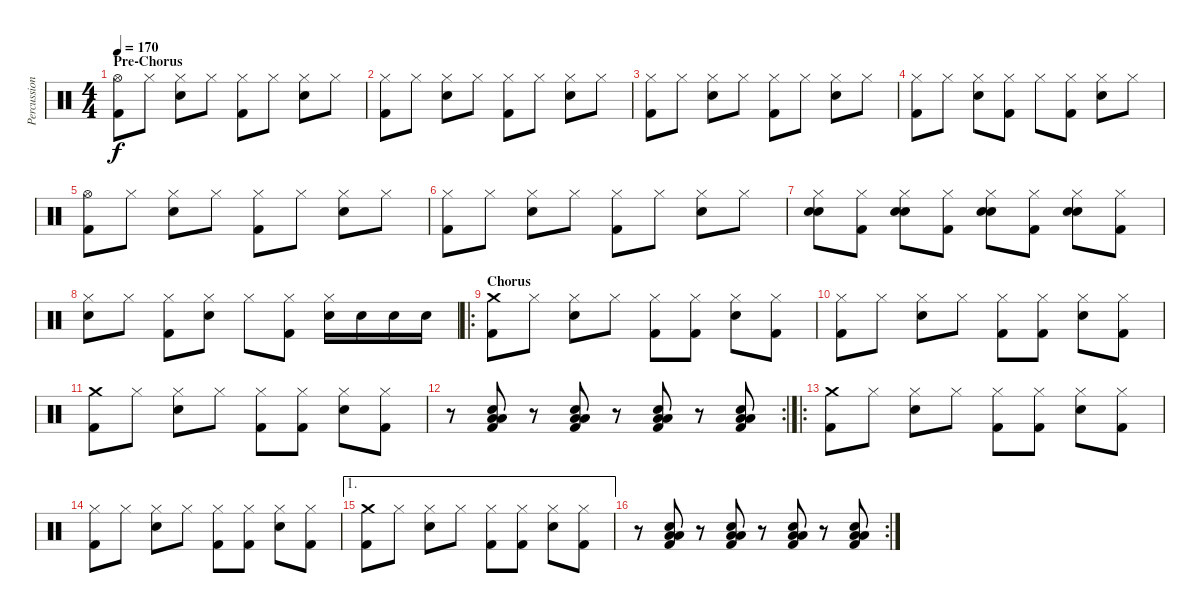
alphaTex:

\track ("Percussions" "Percussion") {instrument percussion}
\staff {score}
\articulation defaults
\ts (4 4)
\section ("" "Pre-Chorus")
\tempo 170
\clef neutral
\ks c
("Hi-Hat (open)" "Kick (hit) 2").8{dy f} "Hi-Hat (closed)".8 ("Hi-Hat (closed)" "Snare (hit) 2").8 "Hi-Hat (closed)".8 ("Hi-Hat (closed)" "Kick (hit) 2").8 "Hi-Hat (closed)".8 ("Hi-Hat (closed)" "Snare (hit) 2").8 "Hi-Hat (closed)".8 |
("Hi-Hat (closed)" "Kick (hit) 2").8 "Hi-Hat (closed)".8 ("Hi-Hat (closed)" "Snare (hit) 2").8 "Hi-Hat (closed)".8 ("Hi-Hat (closed)" "Kick (hit) 2").8 "Hi-Hat (closed)".8 ("Hi-Hat (closed)" "Snare (hit) 2").8 "Hi-Hat (closed)".8 |
("Hi-Hat (closed)" "Kick (hit) 2").8 "Hi-Hat (closed)".8 ("Hi-Hat (closed)" "Snare (hit) 2").8 "Hi-Hat (closed)".8 ("Hi-Hat (closed)" "Kick (hit) 2").8 "Hi-Hat (closed)".8 ("Hi-Hat (closed)" "Snare (hit) 2").8 "Hi-Hat (closed)".8 |
("Hi-Hat (closed)" "Kick (hit) 2").8 "Hi-Hat (closed)".8 ("Hi-Hat (closed)" "Snare (hit) 2").8 ("Hi-Hat (closed)" "Kick (hit) 2").8 "Hi-Hat (closed)".8 ("Hi-Hat (closed)" "Kick (hit) 2").8 ("Hi-Hat (closed)" "Snare (hit) 2").8 "Hi-Hat (closed)".8 |
("Hi-Hat (open)" "Kick (hit) 2").8 "Hi-Hat (closed)".8 ("Hi-Hat (closed)" "Snare (hit) 2").8 "Hi-Hat (closed)".8 ("Hi-Hat (closed)" "Kick (hit) 2").8 "Hi-Hat (closed)".8 ("Hi-Hat (closed)" "Snare (hit) 2").8 "Hi-Hat (closed)".8 |
("Hi-Hat (closed)" "Kick (hit) 2").8 "Hi-Hat (closed)".8 ("Hi-Hat (closed)" "Snare (hit) 2").8 "Hi-Hat (closed)".8 ("Hi-Hat (closed)" "Kick (hit) 2").8 "Hi-Hat (closed)".8 ("Hi-Hat (closed)" "Snare (hit) 2").8 "Hi-Hat (closed)".8 |
("Hi-Hat (closed)" "Snare (hit) 2" "Snare (hit) 2").8{bu 60} ("Hi-Hat (closed)" "Kick (hit) 2").8 ("Hi-Hat (closed)" "Snare (hit) 2" "Snare (hit) 2").8{bu 60} ("Hi-Hat (closed)" "Kick (hit) 2").8 ("Hi-Hat (closed)" "Snare (hit) 2" "Snare (hit) 2").8{bu 60} ("Hi-Hat (closed)" "Kick (hit) 2").8 ("Hi-Hat (closed)" "Snare (hit) 2" "Snare (hit) 2").8{bu 60} ("Hi-Hat (closed)" "Kick (hit) 2").8 |
("Hi-Hat (closed)" "Snare (hit) 2").8 "Hi-Hat (closed)".8 ("Hi-Hat (closed)" "Kick (hit) 2").8 ("Hi-Hat (closed)" "Snare (hit) 2").8 "Hi-Hat (closed)".8 ("Hi-Hat (closed)" "Kick (hit) 2").8 ("Hi-Hat (closed)" "Snare (hit) 2").16 "Snare (hit) 2".16 "Snare (hit) 2".16 "Snare (hit) 2".16 |
\ro
\section ("" "Chorus")
("Crash medium (hit)" "Kick (hit) 2").8 "Hi-Hat (closed)".8 ("Hi-Hat (closed)" "Snare (hit) 2").8 "Hi-Hat (closed)".8 ("Hi-Hat (closed)" "Kick (hit) 2").8 ("Hi-Hat (closed)" "Kick (hit) 2").8 ("Hi-Hat (closed)" "Snare (hit) 2").8 ("Hi-Hat (closed)" "Kick (hit) 2").8 |
("Hi-Hat (closed)" "Kick (hit) 2").8 "Hi-Hat (closed)".8 ("Hi-Hat (closed)" "Snare (hit) 2").8 "Hi-Hat (closed)".8 ("Hi-Hat (closed)" "Kick (hit) 2").8 ("Hi-Hat (closed)" "Kick (hit) 2").8 ("Hi-Hat (closed)" "Snare (hit) 2").8 ("Hi-Hat (closed)" "Kick (hit) 2").8 |
("Crash medium (hit)" "Kick (hit) 2").8 "Hi-Hat (closed)".8 ("Hi-Hat (closed)" "Snare (hit) 2").8 "Hi-Hat (closed)".8 ("Hi-Hat (closed)" "Kick (hit) 2").8 ("Hi-Hat (closed)" "Kick (hit) 2").8 ("Hi-Hat (closed)" "Snare (hit) 2").8 ("Hi-Hat (closed)" "Kick (hit) 2").8 |
\rc 2
r.8 ("Low Floor Tom (hit)" "Low Tom (hit)" "Snare (hit) 2" "Kick (hit) 2").8 r.8 ("Low Floor Tom (hit)" "Low Tom (hit)" "Snare (hit) 2" "Kick (hit) 2").8 r.8 ("Low Floor Tom (hit)" "Low Tom (hit)" "Snare (hit) 2" "Kick (hit) 2").8 r.8 ("Low Floor Tom (hit)" "Low Tom (hit)" "Snare (hit) 2" "Kick (hit) 2").8 |
\ro
("Crash medium (hit)" "Kick (hit) 2").8 "Hi-Hat (closed)".8 ("Hi-Hat (closed)" "Snare (hit) 2").8 "Hi-Hat (closed)".8 ("Hi-Hat (closed)" "Kick (hit) 2").8 ("Hi-Hat (closed)" "Kick (hit) 2").8 ("Hi-Hat (closed)" "Snare (hit) 2").8 ("Hi-Hat (closed)" "Kick (hit) 2").8 |
("Hi-Hat (closed)" "Kick (hit) 2").8 "Hi-Hat (closed)".8 ("Hi-Hat (closed)" "Snare (hit) 2").8 "Hi-Hat (closed)".8 ("Hi-Hat (closed)" "Kick (hit) 2").8 ("Hi-Hat (closed)" "Kick (hit) 2").8 ("Hi-Hat (closed)" "Snare (hit) 2").8 ("Hi-Hat (closed)" "Kick (hit) 2").8 |
\ae 1
("Crash medium (hit)" "Kick (hit) 2").8 "Hi-Hat (closed)".8 ("Hi-Hat (closed)" "Snare (hit) 2").8 "Hi-Hat (closed)".8 ("Hi-Hat (closed)" "Kick (hit) 2").8 ("Hi-Hat (closed)" "Kick (hit) 2").8 ("Hi-Hat (closed)" "Snare (hit) 2").8 ("Hi-Hat (closed)" "Kick (hit) 2").8 |
\rc 2
r.8 ("Low Floor Tom (hit)" "Low Tom (hit)" "Snare (hit) 2" "Kick (hit) 2").8 r.8 ("Low Floor Tom (hit)" "Low Tom (hit)" "Snare (hit) 2" "Kick (hit) 2").8 r.8 ("Low Floor Tom (hit)" "Low Tom (hit)" "Snare (hit) 2" "Kick (hit) 2").8 r.8 ("Low Floor Tom (hit)" "Low Tom (hit)" "Snare (hit) 2" "Kick (hit) 2").8
